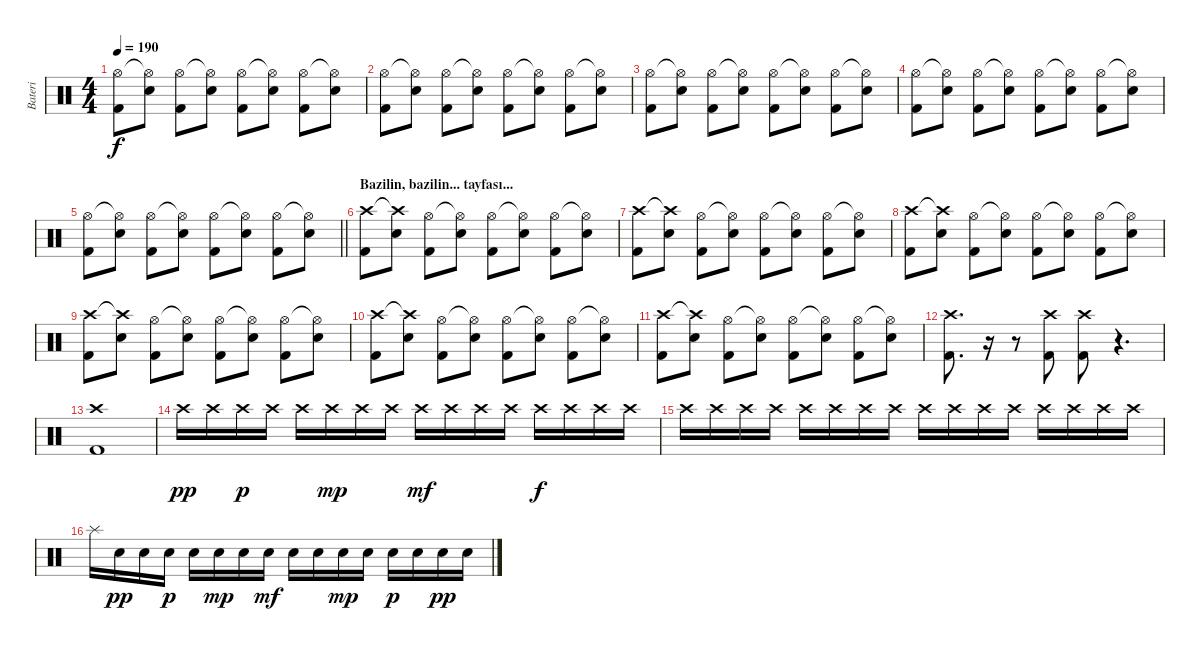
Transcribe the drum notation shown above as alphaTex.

\track ("Bateri" "Bateri") {instrument percussion}
\staff {score}
\articulation defaults
\ts (4 4)
\tempo 190
\clef neutral
\ks c
("Hi-Hat (open)" "Kick (hit) 2").8{dy f} ("Hi-Hat (open)"{t} "Snare (hit) 2").8 ("Hi-Hat (open)" "Kick (hit) 2").8 ("Hi-Hat (open)"{t} "Snare (hit) 2").8 ("Hi-Hat (open)" "Kick (hit) 2").8 ("Hi-Hat (open)"{t} "Snare (hit) 2").8 ("Hi-Hat (open)" "Kick (hit) 2").8 ("Hi-Hat (open)"{t} "Snare (hit) 2").8 |
("Hi-Hat (open)" "Kick (hit) 2").8 ("Hi-Hat (open)"{t} "Snare (hit) 2").8 ("Hi-Hat (open)" "Kick (hit) 2").8 ("Hi-Hat (open)"{t} "Snare (hit) 2").8 ("Hi-Hat (open)" "Kick (hit) 2").8 ("Hi-Hat (open)"{t} "Snare (hit) 2").8 ("Hi-Hat (open)" "Kick (hit) 2").8 ("Hi-Hat (open)"{t} "Snare (hit) 2").8 |
("Hi-Hat (open)" "Kick (hit) 2").8 ("Hi-Hat (open)"{t} "Snare (hit) 2").8 ("Hi-Hat (open)" "Kick (hit) 2").8 ("Hi-Hat (open)"{t} "Snare (hit) 2").8 ("Hi-Hat (open)" "Kick (hit) 2").8 ("Hi-Hat (open)"{t} "Snare (hit) 2").8 ("Hi-Hat (open)" "Kick (hit) 2").8 ("Hi-Hat (open)"{t} "Snare (hit) 2").8 |
("Hi-Hat (open)" "Kick (hit) 2").8 ("Hi-Hat (open)"{t} "Snare (hit) 2").8 ("Hi-Hat (open)" "Kick (hit) 2").8 ("Hi-Hat (open)"{t} "Snare (hit) 2").8 ("Hi-Hat (open)" "Kick (hit) 2").8 ("Hi-Hat (open)"{t} "Snare (hit) 2").8 ("Hi-Hat (open)" "Kick (hit) 2").8 ("Hi-Hat (open)"{t} "Snare (hit) 2").8 |
\barLineRight lightlight
("Hi-Hat (open)" "Kick (hit) 2").8 ("Hi-Hat (open)"{t} "Snare (hit) 2").8 ("Hi-Hat (open)" "Kick (hit) 2").8 ("Hi-Hat (open)"{t} "Snare (hit) 2").8 ("Hi-Hat (open)" "Kick (hit) 2").8 ("Hi-Hat (open)"{t} "Snare (hit) 2").8 ("Hi-Hat (open)" "Kick (hit) 2").8 ("Hi-Hat (open)"{t} "Snare (hit) 2").8 |
\section ("" "Bazilin, bazilin... tayfası...")
("Crash high (hit)" "Kick (hit) 2").8 ("Crash high (hit)"{t} "Snare (hit) 2").8 ("Hi-Hat (open)" "Kick (hit) 2").8 ("Hi-Hat (open)"{t} "Snare (hit) 2").8 ("Hi-Hat (open)" "Kick (hit) 2").8 ("Hi-Hat (open)"{t} "Snare (hit) 2").8 ("Hi-Hat (open)" "Kick (hit) 2").8 ("Hi-Hat (open)"{t} "Snare (hit) 2").8 |
("Crash high (hit)" "Kick (hit) 2").8 ("Crash high (hit)"{t} "Snare (hit) 2").8 ("Hi-Hat (open)" "Kick (hit) 2").8 ("Hi-Hat (open)"{t} "Snare (hit) 2").8 ("Hi-Hat (open)" "Kick (hit) 2").8 ("Hi-Hat (open)"{t} "Snare (hit) 2").8 ("Hi-Hat (open)" "Kick (hit) 2").8 ("Hi-Hat (open)"{t} "Snare (hit) 2").8 |
("Crash high (hit)" "Kick (hit) 2").8 ("Crash high (hit)"{t} "Snare (hit) 2").8 ("Hi-Hat (open)" "Kick (hit) 2").8 ("Hi-Hat (open)"{t} "Snare (hit) 2").8 ("Hi-Hat (open)" "Kick (hit) 2").8 ("Hi-Hat (open)"{t} "Snare (hit) 2").8 ("Hi-Hat (open)" "Kick (hit) 2").8 ("Hi-Hat (open)"{t} "Snare (hit) 2").8 |
("Crash high (hit)" "Kick (hit) 2").8 ("Crash high (hit)"{t} "Snare (hit) 2").8 ("Hi-Hat (open)" "Kick (hit) 2").8 ("Hi-Hat (open)"{t} "Snare (hit) 2").8 ("Hi-Hat (open)" "Kick (hit) 2").8 ("Hi-Hat (open)"{t} "Snare (hit) 2").8 ("Hi-Hat (open)" "Kick (hit) 2").8 ("Hi-Hat (open)"{t} "Snare (hit) 2").8 |
("Crash high (hit)" "Kick (hit) 2").8 ("Crash high (hit)"{t} "Snare (hit) 2").8 ("Hi-Hat (open)" "Kick (hit) 2").8 ("Hi-Hat (open)"{t} "Snare (hit) 2").8 ("Hi-Hat (open)" "Kick (hit) 2").8 ("Hi-Hat (open)"{t} "Snare (hit) 2").8 ("Hi-Hat (open)" "Kick (hit) 2").8 ("Hi-Hat (open)"{t} "Snare (hit) 2").8 |
("Crash high (hit)" "Kick (hit) 2").8 ("Crash high (hit)"{t} "Snare (hit) 2").8 ("Hi-Hat (open)" "Kick (hit) 2").8 ("Hi-Hat (open)"{t} "Snare (hit) 2").8 ("Hi-Hat (open)" "Kick (hit) 2").8 ("Hi-Hat (open)"{t} "Snare (hit) 2").8 ("Hi-Hat (open)" "Kick (hit) 2").8 ("Hi-Hat (open)"{t} "Snare (hit) 2").8 |
("Crash high (hit)" "Kick (hit) 2").8{d} r.16 r.8 ("Crash high (hit)" "Kick (hit) 2").8 ("Crash high (hit)" "Kick (hit) 2").8 r.4{d} |
("Crash high (hit)" "Kick (hit) 2").1 |
"Crash high (hit)".16{dy pp} "Crash high (hit)".16 "Crash high (hit)".16{dy p} "Crash high (hit)".16 "Crash high (hit)".16 "Crash high (hit)".16{dy mp} "Crash high (hit)".16 "Crash high (hit)".16 "Crash high (hit)".16{dy mf} "Crash high (hit)".16 "Crash high (hit)".16 "Crash high (hit)".16 "Crash high (hit)".16{dy f} "Crash high (hit)".16 "Crash high (hit)".16 "Crash high (hit)".16 |
"Crash high (hit)".16 "Crash high (hit)".16 "Crash high (hit)".16 "Crash high (hit)".16 "Crash high (hit)".16 "Crash high (hit)".16 "Crash high (hit)".16 "Crash high (hit)".16 "Crash high (hit)".16 "Crash high (hit)".16 "Crash high (hit)".16 "Crash high (hit)".16 "Crash high (hit)".16 "Crash high (hit)".16 "Crash high (hit)".16 "Crash high (hit)".16 |
"Splash (hit)".16 "Snare (hit) 2".16{dy pp} "Snare (hit) 2".16 "Snare (hit) 2".16{dy p} "Snare (hit) 2".16 "Snare (hit) 2".16{dy mp} "Snare (hit) 2".16 "Snare (hit) 2".16{dy mf} "Snare (hit) 2".16 "Snare (hit) 2".16 "Snare (hit) 2".16{dy mp} "Snare (hit) 2".16 "Snare (hit) 2".16{dy p} "Snare (hit) 2".16 "Snare (hit) 2".16{dy pp} "Snare (hit) 2".16
